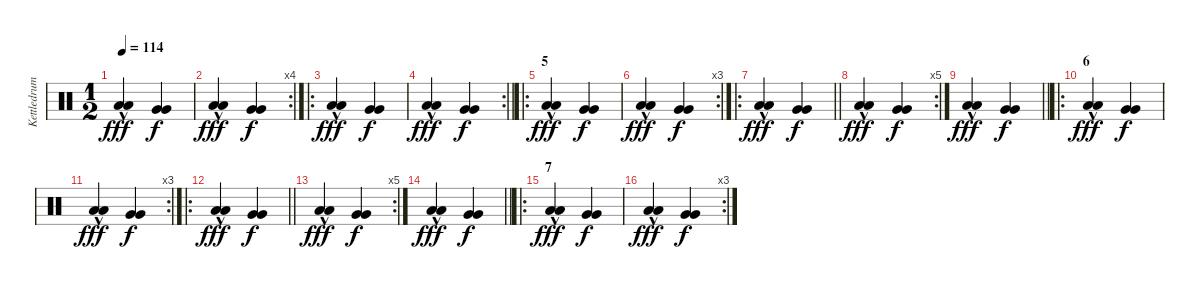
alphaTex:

\track ("Kettledrum" "Kettledrum") {instrument percussion}
\staff {score}
\articulation defaults
\ts (1 2)
\tempo 114
\clef neutral
\ks c
("Low Floor Tom (hit)"{hac} "Low Floor Tom (hit)"{hac}).4{dy fff} ("Very Low Tom (hit)" "Very Low Tom (hit)").4{dy f} |
\rc 4
("Low Floor Tom (hit)"{hac} "Low Floor Tom (hit)"{hac}).4{dy fff} ("Very Low Tom (hit)" "Very Low Tom (hit)").4{dy f} |
\ro
("Low Floor Tom (hit)"{hac} "Low Floor Tom (hit)"{hac}).4{dy fff} ("Very Low Tom (hit)" "Very Low Tom (hit)").4{dy f} |
\rc 2
\barLineRight lightlight
("Low Floor Tom (hit)"{hac} "Low Floor Tom (hit)"{hac}).4{dy fff} ("Very Low Tom (hit)" "Very Low Tom (hit)").4{dy f} |
\ro
\section ("" "5")
("Low Floor Tom (hit)"{hac} "Low Floor Tom (hit)"{hac}).4{dy fff} ("Very Low Tom (hit)" "Very Low Tom (hit)").4{dy f} |
\rc 3
("Low Floor Tom (hit)"{hac} "Low Floor Tom (hit)"{hac}).4{dy fff} ("Very Low Tom (hit)" "Very Low Tom (hit)").4{dy f} |
\ro
\barLineRight lightlight
("Low Floor Tom (hit)"{hac} "Low Floor Tom (hit)"{hac}).4{dy fff} ("Very Low Tom (hit)" "Very Low Tom (hit)").4{dy f} |
\rc 5
("Low Floor Tom (hit)"{hac} "Low Floor Tom (hit)"{hac}).4{dy fff} ("Very Low Tom (hit)" "Very Low Tom (hit)").4{dy f} |
\barLineRight lightlight
("Low Floor Tom (hit)"{hac} "Low Floor Tom (hit)"{hac}).4{dy fff} ("Very Low Tom (hit)" "Very Low Tom (hit)").4{dy f} |
\ro
\section ("" "6")
("Low Floor Tom (hit)"{hac} "Low Floor Tom (hit)"{hac}).4{dy fff} ("Very Low Tom (hit)" "Very Low Tom (hit)").4{dy f} |
\rc 3
("Low Floor Tom (hit)"{hac} "Low Floor Tom (hit)"{hac}).4{dy fff} ("Very Low Tom (hit)" "Very Low Tom (hit)").4{dy f} |
\ro
\barLineRight lightlight
("Low Floor Tom (hit)"{hac} "Low Floor Tom (hit)"{hac}).4{dy fff} ("Very Low Tom (hit)" "Very Low Tom (hit)").4{dy f} |
\rc 5
("Low Floor Tom (hit)"{hac} "Low Floor Tom (hit)"{hac}).4{dy fff} ("Very Low Tom (hit)" "Very Low Tom (hit)").4{dy f} |
\barLineRight lightlight
("Low Floor Tom (hit)"{hac} "Low Floor Tom (hit)"{hac}).4{dy fff} ("Very Low Tom (hit)" "Very Low Tom (hit)").4{dy f} |
\ro
\section ("" "7")
("Low Floor Tom (hit)"{hac} "Low Floor Tom (hit)"{hac}).4{dy fff} ("Very Low Tom (hit)" "Very Low Tom (hit)").4{dy f} |
\rc 3
("Low Floor Tom (hit)"{hac} "Low Floor Tom (hit)"{hac}).4{dy fff} ("Very Low Tom (hit)" "Very Low Tom (hit)").4{dy f}
